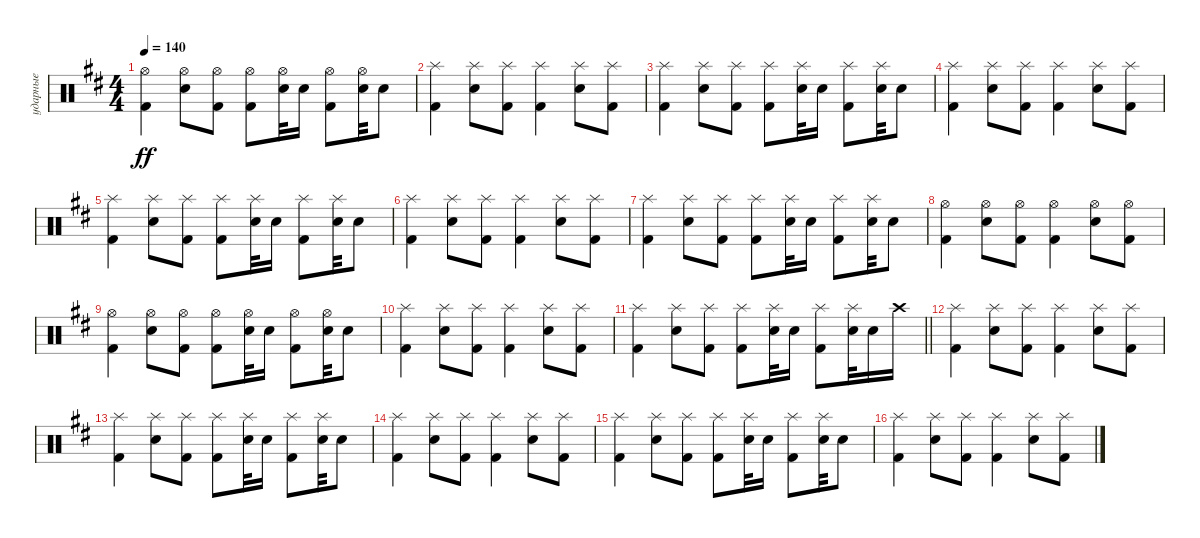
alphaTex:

\track ("ударные" "ударные") {instrument percussion}
\staff {score}
\articulation defaults
\ts (4 4)
\tempo 140
\clef neutral
\ks bminor
("Kick (hit) 2" "Hi-Hat (open)").4{dy ff} ("Snare (hit) 2" "Hi-Hat (open)").8 ("Kick (hit) 2" "Hi-Hat (open)").8 ("Kick (hit) 2" "Hi-Hat (open)").8 ("Snare (hit) 2" "Hi-Hat (open)").32 "Snare (hit) 2".16{beam split} ("Kick (hit) 2" "Hi-Hat (open)").8{beam merge} ("Snare (hit) 2" "Hi-Hat (open)").32 "Snare (hit) 2".8 |
("Kick (hit) 2" "Splash (hit)").4 ("Snare (hit) 2" "Splash (hit)").8 ("Kick (hit) 2" "Splash (hit)").8 ("Kick (hit) 2" "Splash (hit)").4 ("Snare (hit) 2" "Splash (hit)").8 ("Kick (hit) 2" "Splash (hit)").8 |
("Kick (hit) 2" "Splash (hit)").4 ("Snare (hit) 2" "Splash (hit)").8 ("Kick (hit) 2" "Splash (hit)").8 ("Kick (hit) 2" "Splash (hit)").8 ("Snare (hit) 2" "Splash (hit)").32 "Snare (hit) 2".16{beam split} ("Kick (hit) 2" "Splash (hit)").8{beam merge} ("Snare (hit) 2" "Splash (hit)").32 "Snare (hit) 2".8 |
("Kick (hit) 2" "Splash (hit)").4 ("Snare (hit) 2" "Splash (hit)").8 ("Kick (hit) 2" "Splash (hit)").8 ("Kick (hit) 2" "Splash (hit)").4 ("Snare (hit) 2" "Splash (hit)").8 ("Kick (hit) 2" "Splash (hit)").8 |
("Kick (hit) 2" "Splash (hit)").4 ("Snare (hit) 2" "Splash (hit)").8 ("Kick (hit) 2" "Splash (hit)").8 ("Kick (hit) 2" "Splash (hit)").8 ("Snare (hit) 2" "Splash (hit)").32 "Snare (hit) 2".16{beam split} ("Kick (hit) 2" "Splash (hit)").8{beam merge} ("Snare (hit) 2" "Splash (hit)").32 "Snare (hit) 2".8 |
("Kick (hit) 2" "Splash (hit)").4 ("Snare (hit) 2" "Splash (hit)").8 ("Kick (hit) 2" "Splash (hit)").8 ("Kick (hit) 2" "Splash (hit)").4 ("Snare (hit) 2" "Splash (hit)").8 ("Kick (hit) 2" "Splash (hit)").8 |
("Kick (hit) 2" "Splash (hit)").4 ("Snare (hit) 2" "Splash (hit)").8 ("Kick (hit) 2" "Splash (hit)").8 ("Kick (hit) 2" "Splash (hit)").8 ("Snare (hit) 2" "Splash (hit)").32 "Snare (hit) 2".16{beam split} ("Kick (hit) 2" "Splash (hit)").8{beam merge} ("Snare (hit) 2" "Splash (hit)").32 "Snare (hit) 2".8 |
("Kick (hit) 2" "Hi-Hat (open)").4 ("Snare (hit) 2" "Hi-Hat (open)").8 ("Kick (hit) 2" "Hi-Hat (open)").8 ("Kick (hit) 2" "Hi-Hat (open)").4 ("Snare (hit) 2" "Hi-Hat (open)").8 ("Kick (hit) 2" "Hi-Hat (open)").8 |
("Kick (hit) 2" "Hi-Hat (open)").4 ("Snare (hit) 2" "Hi-Hat (open)").8 ("Kick (hit) 2" "Hi-Hat (open)").8 ("Kick (hit) 2" "Hi-Hat (open)").8 ("Snare (hit) 2" "Hi-Hat (open)").32 "Snare (hit) 2".16{beam split} ("Kick (hit) 2" "Hi-Hat (open)").8{beam merge} ("Snare (hit) 2" "Hi-Hat (open)").32 "Snare (hit) 2".8 |
("Kick (hit) 2" "Splash (hit)").4 ("Snare (hit) 2" "Splash (hit)").8 ("Kick (hit) 2" "Splash (hit)").8 ("Kick (hit) 2" "Splash (hit)").4 ("Snare (hit) 2" "Splash (hit)").8 ("Kick (hit) 2" "Splash (hit)").8 |
\barLineRight lightlight
("Kick (hit) 2" "Splash (hit)").4 ("Snare (hit) 2" "Splash (hit)").8 ("Kick (hit) 2" "Splash (hit)").8 ("Kick (hit) 2" "Splash (hit)").8 ("Snare (hit) 2" "Splash (hit)").32 "Snare (hit) 2".16{beam split} ("Kick (hit) 2" "Splash (hit)").8{beam merge} ("Snare (hit) 2" "Splash (hit)").32 "Snare (hit) 2".16 "Crash high (hit)".16 |
("Kick (hit) 2" "Splash (hit)").4 ("Snare (hit) 2" "Splash (hit)").8 ("Kick (hit) 2" "Splash (hit)").8 ("Kick (hit) 2" "Splash (hit)").4 ("Snare (hit) 2" "Splash (hit)").8 ("Kick (hit) 2" "Splash (hit)").8 |
("Kick (hit) 2" "Splash (hit)").4 ("Snare (hit) 2" "Splash (hit)").8 ("Kick (hit) 2" "Splash (hit)").8 ("Kick (hit) 2" "Splash (hit)").8 ("Snare (hit) 2" "Splash (hit)").32 "Snare (hit) 2".16{beam split} ("Kick (hit) 2" "Splash (hit)").8{beam merge} ("Snare (hit) 2" "Splash (hit)").32 "Snare (hit) 2".8 |
("Kick (hit) 2" "Splash (hit)").4 ("Snare (hit) 2" "Splash (hit)").8 ("Kick (hit) 2" "Splash (hit)").8 ("Kick (hit) 2" "Splash (hit)").4 ("Snare (hit) 2" "Splash (hit)").8 ("Kick (hit) 2" "Splash (hit)").8 |
("Kick (hit) 2" "Splash (hit)").4 ("Snare (hit) 2" "Splash (hit)").8 ("Kick (hit) 2" "Splash (hit)").8 ("Kick (hit) 2" "Splash (hit)").8 ("Snare (hit) 2" "Splash (hit)").32 "Snare (hit) 2".16{beam split} ("Kick (hit) 2" "Splash (hit)").8{beam merge} ("Snare (hit) 2" "Splash (hit)").32 "Snare (hit) 2".8 |
("Kick (hit) 2" "Splash (hit)").4 ("Snare (hit) 2" "Splash (hit)").8 ("Kick (hit) 2" "Splash (hit)").8 ("Kick (hit) 2" "Splash (hit)").4 ("Snare (hit) 2" "Splash (hit)").8 ("Kick (hit) 2" "Splash (hit)").8
